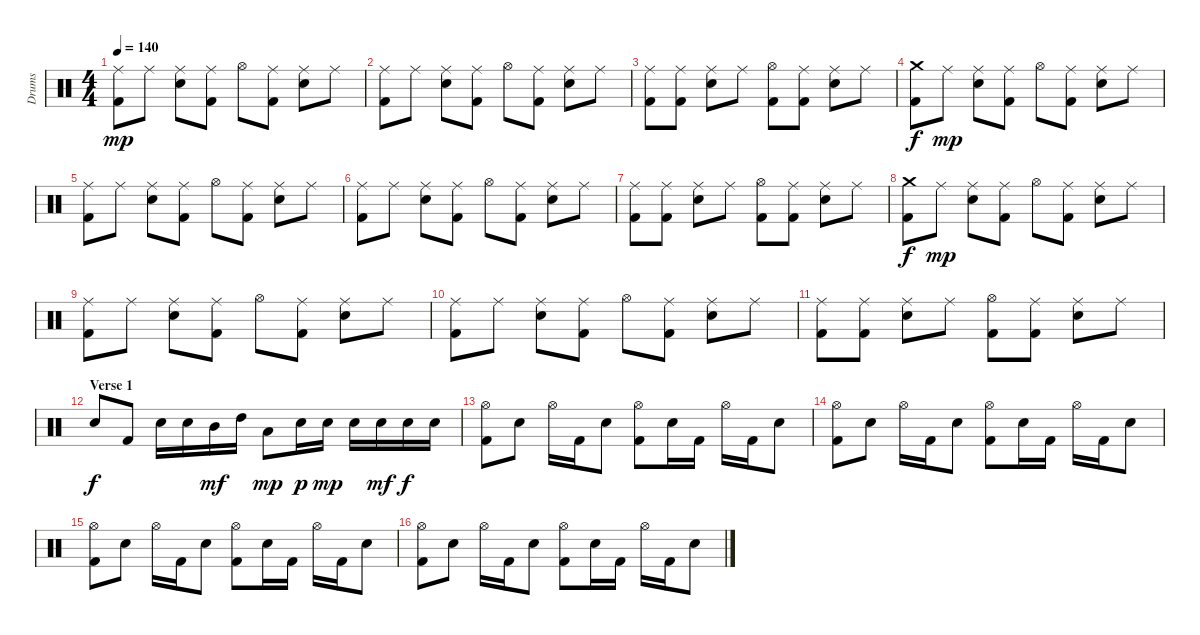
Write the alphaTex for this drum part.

\track ("Drums" "Drums") {instrument percussion}
\staff {score}
\articulation defaults
\ts (4 4)
\tempo 140
\clef neutral
\ks c
("Ride (middle)" "Kick (hit) 2").8{dy mp} "Ride (middle)".8 ("Ride (middle)" "Electric Snare (hit)").8 ("Ride (middle)" "Kick (hit) 2").8 "Hi-Hat (open)".8 ("Ride (middle)" "Kick (hit) 2").8 ("Ride (middle)" "Electric Snare (hit)").8 "Ride (middle)".8 |
("Ride (middle)" "Kick (hit) 2").8 "Ride (middle)".8 ("Ride (middle)" "Electric Snare (hit)").8 ("Ride (middle)" "Kick (hit) 2").8 "Hi-Hat (open)".8 ("Ride (middle)" "Kick (hit) 2").8 ("Ride (middle)" "Electric Snare (hit)").8 "Ride (middle)".8 |
("Ride (middle)" "Kick (hit) 2").8 ("Ride (middle)" "Kick (hit) 2").8 ("Ride (middle)" "Electric Snare (hit)").8 "Ride (middle)".8 ("Hi-Hat (open)" "Kick (hit) 2").8 ("Ride (middle)" "Kick (hit) 2").8 ("Ride (middle)" "Electric Snare (hit)").8 "Ride (middle)".8 |
("Crash medium (hit)" "Kick (hit) 2").8{dy f} "Ride (middle)".8{dy mp} ("Ride (middle)" "Electric Snare (hit)").8 ("Ride (middle)" "Kick (hit) 2").8 "Hi-Hat (open)".8 ("Ride (middle)" "Kick (hit) 2").8 ("Ride (middle)" "Electric Snare (hit)").8 "Ride (middle)".8 |
("Ride (middle)" "Kick (hit) 2").8 "Ride (middle)".8 ("Ride (middle)" "Electric Snare (hit)").8 ("Ride (middle)" "Kick (hit) 2").8 "Hi-Hat (open)".8 ("Ride (middle)" "Kick (hit) 2").8 ("Ride (middle)" "Electric Snare (hit)").8 "Ride (middle)".8 |
("Ride (middle)" "Kick (hit) 2").8 "Ride (middle)".8 ("Ride (middle)" "Electric Snare (hit)").8 ("Ride (middle)" "Kick (hit) 2").8 "Hi-Hat (open)".8 ("Ride (middle)" "Kick (hit) 2").8 ("Ride (middle)" "Electric Snare (hit)").8 "Ride (middle)".8 |
("Ride (middle)" "Kick (hit) 2").8 ("Ride (middle)" "Kick (hit) 2").8 ("Ride (middle)" "Electric Snare (hit)").8 "Ride (middle)".8 ("Hi-Hat (open)" "Kick (hit) 2").8 ("Ride (middle)" "Kick (hit) 2").8 ("Ride (middle)" "Electric Snare (hit)").8 "Ride (middle)".8 |
("Crash medium (hit)" "Kick (hit) 2").8{dy f} "Ride (middle)".8{dy mp} ("Ride (middle)" "Electric Snare (hit)").8 ("Ride (middle)" "Kick (hit) 2").8 "Hi-Hat (open)".8 ("Ride (middle)" "Kick (hit) 2").8 ("Ride (middle)" "Electric Snare (hit)").8 "Ride (middle)".8 |
("Ride (middle)" "Kick (hit) 2").8 "Ride (middle)".8 ("Ride (middle)" "Electric Snare (hit)").8 ("Ride (middle)" "Kick (hit) 2").8 "Hi-Hat (open)".8 ("Ride (middle)" "Kick (hit) 2").8 ("Ride (middle)" "Electric Snare (hit)").8 "Ride (middle)".8 |
("Ride (middle)" "Kick (hit) 2").8 "Ride (middle)".8 ("Ride (middle)" "Electric Snare (hit)").8 ("Ride (middle)" "Kick (hit) 2").8 "Hi-Hat (open)".8 ("Ride (middle)" "Kick (hit) 2").8 ("Ride (middle)" "Electric Snare (hit)").8 "Ride (middle)".8 |
("Ride (middle)" "Kick (hit) 2").8 ("Ride (middle)" "Kick (hit) 2").8 ("Ride (middle)" "Electric Snare (hit)").8 "Ride (middle)".8 ("Hi-Hat (open)" "Kick (hit) 2").8 ("Ride (middle)" "Kick (hit) 2").8 ("Ride (middle)" "Electric Snare (hit)").8 "Ride (middle)".8 |
\section ("" "Verse 1")
"Electric Snare (hit)".8{dy f} "Kick (hit) 2".8 "Electric Snare (hit)".16 "Electric Snare (hit)".16 "Mid Tom (hit)".16{dy mf} "High Tom (hit)".16 "Low Floor Tom (hit)".8{dy mp} "Electric Snare (hit)".16{dy p} "Electric Snare (hit)".16{dy mp} "Electric Snare (hit)".16 "Electric Snare (hit)".16{dy mf} "Electric Snare (hit)".16{dy f} "Electric Snare (hit)".16 |
("Hi-Hat (open)" "Kick (hit) 2").8 "Electric Snare (hit)".8 "Hi-Hat (open)".16 "Kick (hit) 2".16 "Electric Snare (hit)".8 ("Hi-Hat (open)" "Kick (hit) 2").8 "Electric Snare (hit)".16 "Kick (hit) 2".16 "Hi-Hat (open)".16 "Kick (hit) 2".16 "Electric Snare (hit)".8 |
("Hi-Hat (open)" "Kick (hit) 2").8 "Electric Snare (hit)".8 "Hi-Hat (open)".16 "Kick (hit) 2".16 "Electric Snare (hit)".8 ("Hi-Hat (open)" "Kick (hit) 2").8 "Electric Snare (hit)".16 "Kick (hit) 2".16 "Hi-Hat (open)".16 "Kick (hit) 2".16 "Electric Snare (hit)".8 |
("Hi-Hat (open)" "Kick (hit) 2").8 "Electric Snare (hit)".8 "Hi-Hat (open)".16 "Kick (hit) 2".16 "Electric Snare (hit)".8 ("Hi-Hat (open)" "Kick (hit) 2").8 "Electric Snare (hit)".16 "Kick (hit) 2".16 "Hi-Hat (open)".16 "Kick (hit) 2".16 "Electric Snare (hit)".8 |
("Hi-Hat (open)" "Kick (hit) 2").8 "Electric Snare (hit)".8 "Hi-Hat (open)".16 "Kick (hit) 2".16 "Electric Snare (hit)".8 ("Hi-Hat (open)" "Kick (hit) 2").8 "Electric Snare (hit)".16 "Kick (hit) 2".16 "Hi-Hat (open)".16 "Kick (hit) 2".16 "Electric Snare (hit)".8
